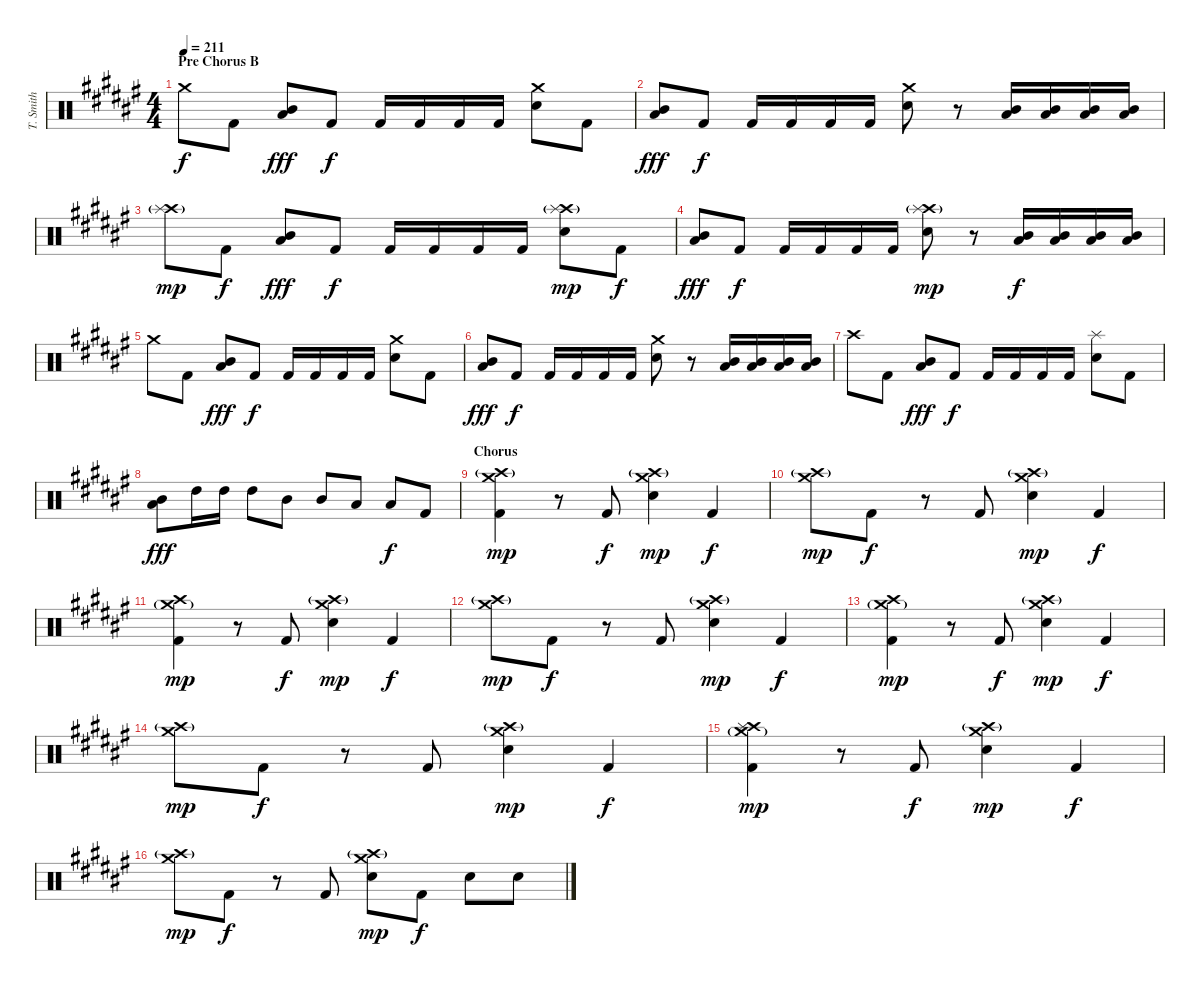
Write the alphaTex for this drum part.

\track ("T. Smith" "T. Smith") {instrument percussion}
\staff {score}
\articulation defaults
\ts (4 4)
\section ("" "Pre Chorus B")
\tempo 211
\clef neutral
\ks d#minor "Crash medium (hit)".8{dy f} "Kick (hit) 2".8
("Mid Tom (hit)" "Low Tom (hit)").8{dy fff} "Kick (hit) 2".8{dy f} "Kick (hit) 2".16 "Kick (hit) 2".16 "Kick (hit) 2".16 "Kick (hit) 2".16 ("Crash medium (hit)" "Electric Snare (hit)").8 "Kick (hit) 2".8 |
("Mid Tom (hit)" "Low Tom (hit)").8{dy fff} "Kick (hit) 2".8{dy f} "Kick (hit) 2".16 "Kick (hit) 2".16 "Kick (hit) 2".16 "Kick (hit) 2".16 ("Crash medium (hit)" "Electric Snare (hit)").8 r.8 ("Mid Tom (hit)" "Low Tom (hit)").16 ("Mid Tom (hit)" "Low Tom (hit)").16 ("Mid Tom (hit)" "Low Tom (hit)").16 ("Mid Tom (hit)" "Low Tom (hit)").16 |
("Crash high (hit)"{g} "Splash (hit)").8{dy mp} "Kick (hit) 2".8{dy f} ("Mid Tom (hit)" "Low Tom (hit)").8{dy fff} "Kick (hit) 2".8{dy f} "Kick (hit) 2".16 "Kick (hit) 2".16 "Kick (hit) 2".16 "Kick (hit) 2".16 ("Crash high (hit)"{g} "Splash (hit)" "Electric Snare (hit)").8{dy mp} "Kick (hit) 2".8{dy f} |
("Mid Tom (hit)" "Low Tom (hit)").8{dy fff} "Kick (hit) 2".8{dy f} "Kick (hit) 2".16 "Kick (hit) 2".16 "Kick (hit) 2".16 "Kick (hit) 2".16 ("Crash high (hit)"{g} "Splash (hit)" "Electric Snare (hit)").8{dy mp} r.8 ("Mid Tom (hit)" "Low Tom (hit)").16{dy f} ("Mid Tom (hit)" "Low Tom (hit)").16 ("Mid Tom (hit)" "Low Tom (hit)").16 ("Mid Tom (hit)" "Low Tom (hit)").16 |
"Crash medium (hit)".8 "Kick (hit) 2".8 ("Mid Tom (hit)" "Low Tom (hit)").8{dy fff} "Kick (hit) 2".8{dy f} "Kick (hit) 2".16 "Kick (hit) 2".16 "Kick (hit) 2".16 "Kick (hit) 2".16 ("Crash medium (hit)" "Electric Snare (hit)").8 "Kick (hit) 2".8 |
("Mid Tom (hit)" "Low Tom (hit)").8{dy fff} "Kick (hit) 2".8{dy f} "Kick (hit) 2".16 "Kick (hit) 2".16 "Kick (hit) 2".16 "Kick (hit) 2".16 ("Crash medium (hit)" "Electric Snare (hit)").8 r.8 ("Mid Tom (hit)" "Low Tom (hit)").16 ("Mid Tom (hit)" "Low Tom (hit)").16 ("Mid Tom (hit)" "Low Tom (hit)").16 ("Mid Tom (hit)" "Low Tom (hit)").16 |
"Crash high (hit)".8 "Kick (hit) 2".8 ("Mid Tom (hit)" "Low Tom (hit)").8{dy fff} "Kick (hit) 2".8{dy f} "Kick (hit) 2".16 "Kick (hit) 2".16 "Kick (hit) 2".16 "Kick (hit) 2".16 ("Splash (hit)" "Electric Snare (hit)").8 "Kick (hit) 2".8 |
("Mid Tom (hit)" "Low Tom (hit)").8{dy fff} "High Tom (hit)".16 "High Tom (hit)".16 "High Tom (hit)".8 "Mid Tom (hit)".8 "Mid Tom (hit)".8 "Low Tom (hit)".8 "Low Tom (hit)".8{dy f} "Kick (hit) 2".8 |
\section ("" "Chorus")
("Crash medium (hit)" "Crash high (hit)"{g} "Kick (hit) 2").4{dy mp} r.8 "Kick (hit) 2".8{dy f} ("Crash medium (hit)" "Crash high (hit)"{g} "Electric Snare (hit)").4{dy mp} "Kick (hit) 2".4{dy f} |
("Crash medium (hit)" "Crash high (hit)"{g}).8{dy mp} "Kick (hit) 2".8{dy f} r.8 "Kick (hit) 2".8 ("Crash medium (hit)" "Crash high (hit)"{g} "Electric Snare (hit)").4{dy mp} "Kick (hit) 2".4{dy f} |
("Crash medium (hit)"{g} "Crash high (hit)" "Kick (hit) 2").4{dy mp} r.8 "Kick (hit) 2".8{dy f} ("Crash medium (hit)" "Crash high (hit)"{g} "Electric Snare (hit)").4{dy mp} "Kick (hit) 2".4{dy f} |
("Crash medium (hit)" "Crash high (hit)"{g}).8{dy mp} "Kick (hit) 2".8{dy f} r.8 "Kick (hit) 2".8 ("Crash medium (hit)" "Crash high (hit)"{g} "Electric Snare (hit)").4{dy mp} "Kick (hit) 2".4{dy f} |
("Crash medium (hit)"{g} "Crash high (hit)" "Kick (hit) 2").4{dy mp} r.8 "Kick (hit) 2".8{dy f} ("Crash medium (hit)" "Crash high (hit)"{g} "Electric Snare (hit)").4{dy mp} "Kick (hit) 2".4{dy f} |
("Crash medium (hit)" "Crash high (hit)"{g}).8{dy mp} "Kick (hit) 2".8{dy f} r.8 "Kick (hit) 2".8 ("Crash medium (hit)" "Crash high (hit)"{g} "Electric Snare (hit)").4{dy mp} "Kick (hit) 2".4{dy f} |
("Crash medium (hit)"{g} "Crash high (hit)" "Splash (hit)" "Kick (hit) 2").4{dy mp} r.8 "Kick (hit) 2".8{dy f} ("Crash medium (hit)" "Crash high (hit)"{g} "Electric Snare (hit)").4{dy mp} "Kick (hit) 2".4{dy f} |
("Crash medium (hit)" "Crash high (hit)"{g}).8{dy mp} "Kick (hit) 2".8{dy f} r.8 "Kick (hit) 2".8 ("Crash medium (hit)" "Crash high (hit)"{g} "Electric Snare (hit)").8{dy mp} "Kick (hit) 2".8{dy f} "Electric Snare (hit)".8 "Electric Snare (hit)".8
